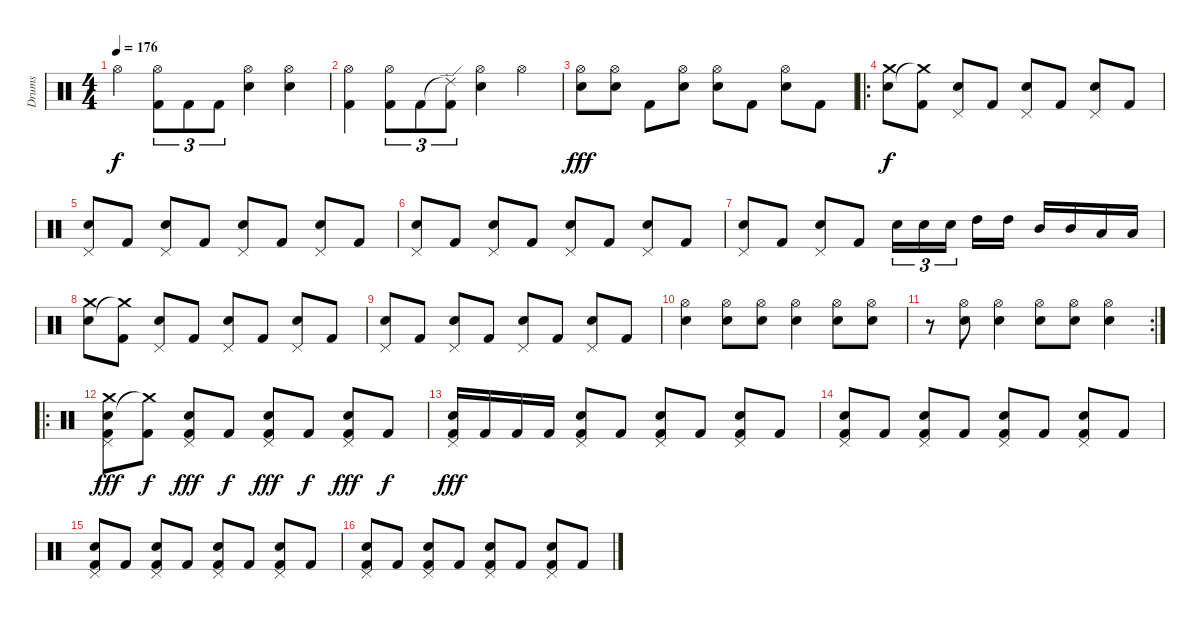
\track ("Drums" "Drums") {instrument percussion}
\staff {score}
\articulation defaults
\ts (4 4)
\tempo 176
\clef neutral
\ks c "Hi-Hat (open)".4{dy f}
("Hi-Hat (open)" "Kick (hit) 2").8{tu (3 2)} "Kick (hit) 2".8{tu (3 2)} "Kick (hit) 2".8{tu (3 2)} ("Hi-Hat (open)" "Snare (hit) 2").4 ("Hi-Hat (open)" "Snare (hit) 2").4 |
("Hi-Hat (open)" "Kick (hit) 2").4 ("Hi-Hat (open)" "Kick (hit) 2").8{tu (3 2)} "Kick (hit) 2".8{tu (3 2)} ("Ride (edge) 2"{t} "Kick (hit) 2").8{tu (3 2)} ("Hi-Hat (open)" "Snare (hit) 2").4 "Hi-Hat (open)".4 |
("Snare (hit) 2" "Hi-Hat (open)").8{dy fff} ("Snare (hit) 2" "Hi-Hat (open)").8 "Kick (hit) 2".8 ("Snare (hit) 2" "Hi-Hat (open)").8 ("Snare (hit) 2" "Hi-Hat (open)").8 "Kick (hit) 2".8 ("Snare (hit) 2" "Hi-Hat (open)").8 "Kick (hit) 2".8 |
\ro
("Crash medium (hit)" "Snare (hit) 2").8{dy f} ("Kick (hit) 2" "Crash medium (hit)"{t}).8 ("Pedal Hi-Hat (hit)" "Snare (hit) 2").8 "Kick (hit) 2".8 ("Pedal Hi-Hat (hit)" "Snare (hit) 2").8 "Kick (hit) 2".8 ("Pedal Hi-Hat (hit)" "Snare (hit) 2").8 "Kick (hit) 2".8 |
("Pedal Hi-Hat (hit)" "Snare (hit) 2").8 "Kick (hit) 2".8 ("Pedal Hi-Hat (hit)" "Snare (hit) 2").8 "Kick (hit) 2".8 ("Pedal Hi-Hat (hit)" "Snare (hit) 2").8 "Kick (hit) 2".8 ("Pedal Hi-Hat (hit)" "Snare (hit) 2").8 "Kick (hit) 2".8 |
("Pedal Hi-Hat (hit)" "Snare (hit) 2").8 "Kick (hit) 2".8 ("Pedal Hi-Hat (hit)" "Snare (hit) 2").8 "Kick (hit) 2".8 ("Pedal Hi-Hat (hit)" "Snare (hit) 2").8 "Kick (hit) 2".8 ("Pedal Hi-Hat (hit)" "Snare (hit) 2").8 "Kick (hit) 2".8 |
("Pedal Hi-Hat (hit)" "Snare (hit) 2").8 "Kick (hit) 2".8 ("Pedal Hi-Hat (hit)" "Snare (hit) 2").8 "Kick (hit) 2".8 "Electric Snare (hit)".16{tu (3 2)} "Electric Snare (hit)".16{tu (3 2)} "Electric Snare (hit)".16{tu (3 2)} "High Tom (hit)".16 "High Tom (hit)".16 "Mid Tom (hit)".16 "Mid Tom (hit)".16 "Low Tom (hit)".16 "Low Tom (hit)".16 |
("Crash medium (hit)" "Snare (hit) 2").8 ("Kick (hit) 2" "Crash medium (hit)"{t}).8 ("Pedal Hi-Hat (hit)" "Snare (hit) 2").8 "Kick (hit) 2".8 ("Pedal Hi-Hat (hit)" "Snare (hit) 2").8 "Kick (hit) 2".8 ("Pedal Hi-Hat (hit)" "Snare (hit) 2").8 "Kick (hit) 2".8 |
("Pedal Hi-Hat (hit)" "Snare (hit) 2").8 "Kick (hit) 2".8 ("Pedal Hi-Hat (hit)" "Snare (hit) 2").8 "Kick (hit) 2".8 ("Pedal Hi-Hat (hit)" "Snare (hit) 2").8 "Kick (hit) 2".8 ("Pedal Hi-Hat (hit)" "Snare (hit) 2").8 "Kick (hit) 2".8 |
("Snare (hit) 2" "Hi-Hat (open)").4 ("Snare (hit) 2" "Hi-Hat (open)").8 ("Snare (hit) 2" "Hi-Hat (open)").8 ("Snare (hit) 2" "Hi-Hat (open)").4 ("Snare (hit) 2" "Hi-Hat (open)").8 ("Snare (hit) 2" "Hi-Hat (open)").8 |
\rc 2
r.8 ("Snare (hit) 2" "Hi-Hat (open)").8 ("Snare (hit) 2" "Hi-Hat (open)").4 ("Snare (hit) 2" "Hi-Hat (open)").8 ("Snare (hit) 2" "Hi-Hat (open)").8 ("Snare (hit) 2" "Hi-Hat (open)").4 |
\ro
("Crash medium (hit)" "Snare (hit) 2" "Pedal Hi-Hat (hit)" "Kick (hit) 2").8{dy fff} ("Kick (hit) 2" "Crash medium (hit)"{t}).8{dy f} ("Pedal Hi-Hat (hit)" "Snare (hit) 2" "Kick (hit) 2").8{dy fff} "Kick (hit) 2".8{dy f} ("Pedal Hi-Hat (hit)" "Snare (hit) 2" "Kick (hit) 2").8{dy fff} "Kick (hit) 2".8{dy f} ("Pedal Hi-Hat (hit)" "Snare (hit) 2" "Kick (hit) 2").8{dy fff} "Kick (hit) 2".8{dy f} |
("Pedal Hi-Hat (hit)" "Snare (hit) 2" "Kick (hit) 2").16{dy fff} "Kick (hit) 2".16 "Kick (hit) 2".16 "Kick (hit) 2".16 ("Snare (hit) 2" "Pedal Hi-Hat (hit)" "Kick (hit) 2").8 "Kick (hit) 2".8 ("Snare (hit) 2" "Pedal Hi-Hat (hit)" "Kick (hit) 2").8 "Kick (hit) 2".8 ("Pedal Hi-Hat (hit)" "Snare (hit) 2" "Kick (hit) 2").8 "Kick (hit) 2".8 |
("Pedal Hi-Hat (hit)" "Snare (hit) 2" "Kick (hit) 2").8 "Kick (hit) 2".8 ("Snare (hit) 2" "Pedal Hi-Hat (hit)" "Kick (hit) 2").8 "Kick (hit) 2".8 ("Snare (hit) 2" "Pedal Hi-Hat (hit)" "Kick (hit) 2").8 "Kick (hit) 2".8 ("Pedal Hi-Hat (hit)" "Snare (hit) 2" "Kick (hit) 2").8 "Kick (hit) 2".8 |
("Pedal Hi-Hat (hit)" "Snare (hit) 2" "Kick (hit) 2").8 "Kick (hit) 2".8 ("Snare (hit) 2" "Pedal Hi-Hat (hit)" "Kick (hit) 2").8 "Kick (hit) 2".8 ("Snare (hit) 2" "Pedal Hi-Hat (hit)" "Kick (hit) 2").8 "Kick (hit) 2".8 ("Pedal Hi-Hat (hit)" "Snare (hit) 2" "Kick (hit) 2").8 "Kick (hit) 2".8 |
("Pedal Hi-Hat (hit)" "Snare (hit) 2" "Kick (hit) 2").8 "Kick (hit) 2".8 ("Snare (hit) 2" "Pedal Hi-Hat (hit)" "Kick (hit) 2").8 "Kick (hit) 2".8 ("Snare (hit) 2" "Pedal Hi-Hat (hit)" "Kick (hit) 2").8 "Kick (hit) 2".8 ("Pedal Hi-Hat (hit)" "Snare (hit) 2" "Kick (hit) 2").8 "Kick (hit) 2".8
